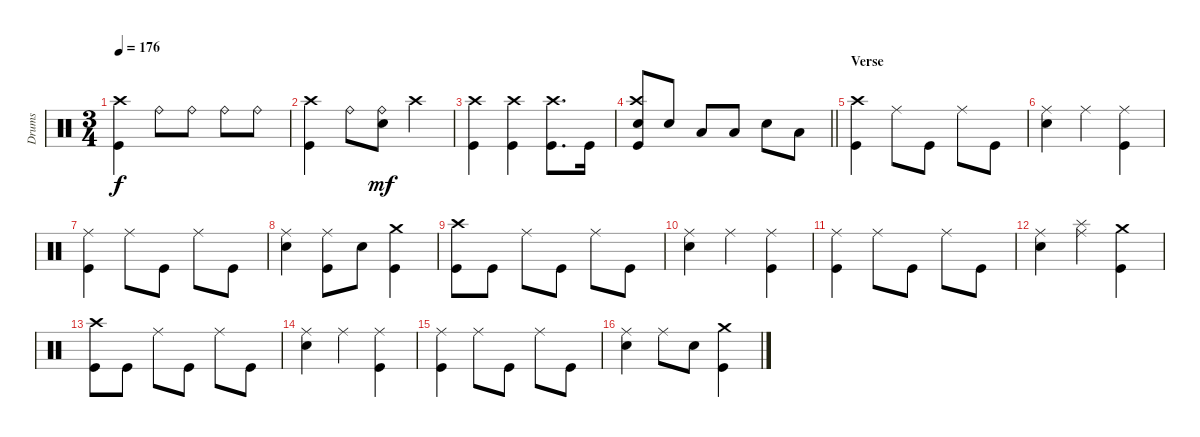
\track ("Drums" "Drums") {instrument percussion}
\staff {score}
\articulation defaults
\ts (3 4)
\tempo 176
\clef neutral
\ks c
("Kick (hit)" "Crash high (hit)").4{dy f} "Ride (bell)".8 "Ride (bell)".8 "Ride (bell)".8 "Ride (bell)".8 |
("Kick (hit)" "Crash high (hit)").4 "Ride (bell)".8 ("Snare (hit) 2" "Ride (bell)").8{dy mf} "Crash high (hit)".4 |
("Crash high (hit)" "Kick (hit)").4 ("Kick (hit)" "Crash high (hit)").4 ("Crash high (hit)" "Kick (hit)").8{d} "Kick (hit)".16 |
\barLineRight lightlight
("Snare (hit) 2" "Crash high (hit)" "Kick (hit)").8 "Snare (hit) 2".8 "Low Floor Tom (hit)".8 "Low Floor Tom (hit)".8 "Snare (hit) 2".8 "Low Floor Tom (hit)".8 |
\section ("" "Verse")
("Kick (hit)" "Crash high (hit)").4 "Ride (middle)".8 "Kick (hit)".8 "Ride (middle)".8 "Kick (hit)".8 |
("Snare (hit) 2" "Ride (middle)").4 "Ride (middle)".4 ("Kick (hit)" "Ride (middle)").4 |
("Kick (hit)" "Ride (middle)").4 "Ride (middle)".8 "Kick (hit)".8 "Ride (middle)".8 "Kick (hit)".8 |
("Snare (hit) 2" "Ride (middle)").4 ("Ride (middle)" "Kick (hit)").8 "Snare (hit) 2".8 ("Kick (hit)" "Crash medium (hit)").4 |
("Kick (hit)" "Crash high (hit)").8 "Kick (hit)".8 "Ride (middle)".8 "Kick (hit)".8 "Ride (middle)".8 "Kick (hit)".8 |
("Snare (hit) 2" "Ride (middle)").4 "Ride (middle)".4 ("Kick (hit)" "Ride (middle)").4 |
("Kick (hit)" "Ride (middle)").4 "Ride (middle)".8 "Kick (hit)".8 "Ride (middle)".8 "Kick (hit)".8 |
("Snare (hit) 2" "Ride (middle)").4 ("Ride (middle)" "Splash (hit)").4 ("Kick (hit)" "Crash medium (hit)").4 |
("Kick (hit)" "Crash high (hit)").8 "Kick (hit)".8 "Ride (middle)".8 "Kick (hit)".8 "Ride (middle)".8 "Kick (hit)".8 |
("Snare (hit) 2" "Ride (middle)").4 "Ride (middle)".4 ("Kick (hit)" "Ride (middle)").4 |
("Kick (hit)" "Ride (middle)").4 "Ride (middle)".8 "Kick (hit)".8 "Ride (middle)".8 "Kick (hit)".8 |
("Snare (hit) 2" "Ride (middle)").4 "Ride (middle)".8 "Snare (hit) 2".8 ("Kick (hit)" "Crash medium (hit)").4
